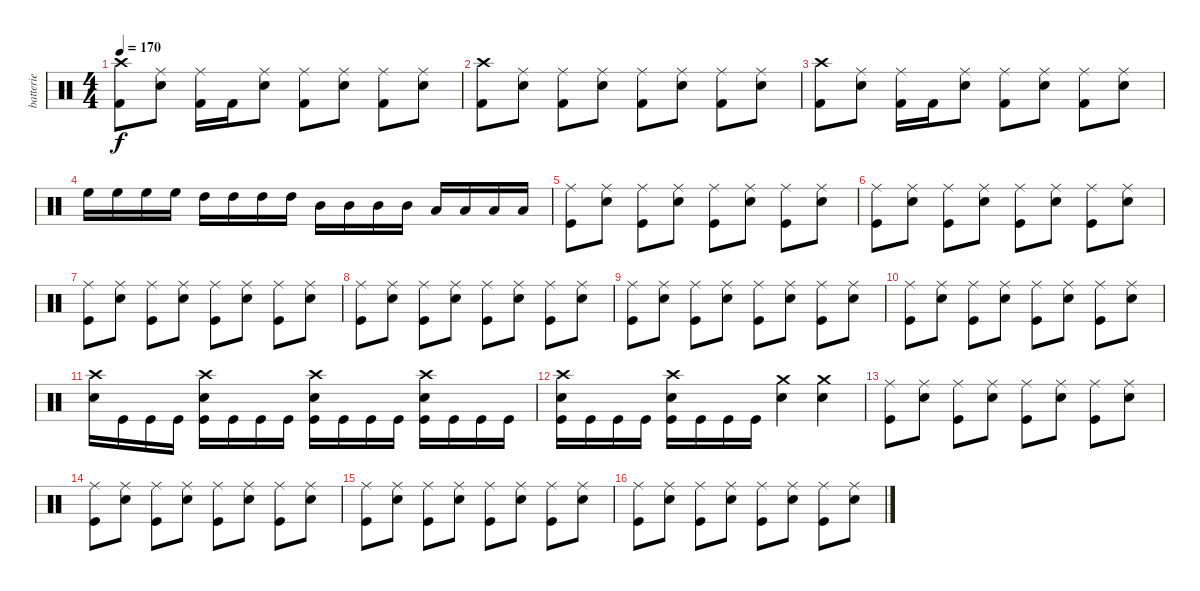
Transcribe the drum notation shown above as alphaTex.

\track ("batterie" "batterie") {instrument percussion}
\staff {score}
\articulation defaults
\ts (4 4)
\tempo 170
\clef neutral
\ks c
("Crash high (hit)" "Kick (hit) 2").8{dy f} ("Ride (middle)" "Snare (hit) 2").8 ("Ride (middle)" "Kick (hit) 2").16 "Kick (hit) 2".16 ("Ride (middle)" "Snare (hit) 2").8 ("Ride (middle)" "Kick (hit) 2").8 ("Ride (middle)" "Snare (hit) 2").8 ("Ride (middle)" "Kick (hit) 2").8 ("Ride (middle)" "Snare (hit) 2").8 |
("Crash high (hit)" "Kick (hit) 2").8 ("Ride (middle)" "Snare (hit) 2").8 ("Ride (middle)" "Kick (hit) 2").8 ("Ride (middle)" "Snare (hit) 2").8 ("Ride (middle)" "Kick (hit) 2").8 ("Ride (middle)" "Snare (hit) 2").8 ("Ride (middle)" "Kick (hit) 2").8 ("Ride (middle)" "Snare (hit) 2").8 |
("Crash high (hit)" "Kick (hit) 2").8 ("Ride (middle)" "Snare (hit) 2").8 ("Ride (middle)" "Kick (hit) 2").16 "Kick (hit) 2".16 ("Ride (middle)" "Snare (hit) 2").8 ("Ride (middle)" "Kick (hit) 2").8 ("Ride (middle)" "Snare (hit) 2").8 ("Ride (middle)" "Kick (hit) 2").8 ("Ride (middle)" "Snare (hit) 2").8 |
"High Floor Tom (hit)".16 "High Floor Tom (hit)".16 "High Floor Tom (hit)".16 "High Floor Tom (hit)".16 "High Tom (hit)".16 "High Tom (hit)".16 "High Tom (hit)".16 "High Tom (hit)".16 "Mid Tom (hit)".16 "Mid Tom (hit)".16 "Mid Tom (hit)".16 "Mid Tom (hit)".16 "Low Tom (hit)".16 "Low Tom (hit)".16 "Low Tom (hit)".16 "Low Tom (hit)".16 |
("Ride (middle)" "Kick (hit)").8 ("Ride (middle)" "Snare (hit) 2").8 ("Ride (middle)" "Kick (hit)").8 ("Ride (middle)" "Snare (hit) 2").8 ("Ride (middle)" "Kick (hit)").8 ("Ride (middle)" "Snare (hit) 2").8 ("Ride (middle)" "Kick (hit)").8 ("Ride (middle)" "Snare (hit) 2").8 |
("Ride (middle)" "Kick (hit)").8 ("Ride (middle)" "Snare (hit) 2").8 ("Ride (middle)" "Kick (hit)").8 ("Ride (middle)" "Snare (hit) 2").8 ("Ride (middle)" "Kick (hit)").8 ("Ride (middle)" "Snare (hit) 2").8 ("Ride (middle)" "Kick (hit)").8 ("Ride (middle)" "Snare (hit) 2").8 |
("Ride (middle)" "Kick (hit)").8 ("Ride (middle)" "Snare (hit) 2").8 ("Ride (middle)" "Kick (hit)").8 ("Ride (middle)" "Snare (hit) 2").8 ("Ride (middle)" "Kick (hit)").8 ("Ride (middle)" "Snare (hit) 2").8 ("Ride (middle)" "Kick (hit)").8 ("Ride (middle)" "Snare (hit) 2").8 |
("Ride (middle)" "Kick (hit)").8 ("Ride (middle)" "Snare (hit) 2").8 ("Ride (middle)" "Kick (hit)").8 ("Ride (middle)" "Snare (hit) 2").8 ("Ride (middle)" "Kick (hit)").8 ("Ride (middle)" "Snare (hit) 2").8 ("Ride (middle)" "Kick (hit)").8 ("Ride (middle)" "Snare (hit) 2").8 |
("Ride (middle)" "Kick (hit)").8 ("Ride (middle)" "Snare (hit) 2").8 ("Ride (middle)" "Kick (hit)").8 ("Ride (middle)" "Snare (hit) 2").8 ("Ride (middle)" "Kick (hit)").8 ("Ride (middle)" "Snare (hit) 2").8 ("Ride (middle)" "Kick (hit)").8 ("Ride (middle)" "Snare (hit) 2").8 |
("Ride (middle)" "Kick (hit)").8 ("Ride (middle)" "Snare (hit) 2").8 ("Ride (middle)" "Kick (hit)").8 ("Ride (middle)" "Snare (hit) 2").8 ("Ride (middle)" "Kick (hit)").8 ("Ride (middle)" "Snare (hit) 2").8 ("Ride (middle)" "Kick (hit)").8 ("Ride (middle)" "Snare (hit) 2").8 |
("Crash high (hit)" "Snare (hit) 2").16 "Kick (hit)".16 "Kick (hit)".16 "Kick (hit)".16 ("Crash high (hit)" "Snare (hit) 2" "Kick (hit)").16 "Kick (hit)".16 "Kick (hit)".16 "Kick (hit)".16 ("Crash high (hit)" "Snare (hit) 2" "Kick (hit)").16 "Kick (hit)".16 "Kick (hit)".16 "Kick (hit)".16 ("Crash high (hit)" "Snare (hit) 2" "Kick (hit)").16 "Kick (hit)".16 "Kick (hit)".16 "Kick (hit)".16 |
("Crash high (hit)" "Snare (hit) 2" "Kick (hit)").16 "Kick (hit)".16 "Kick (hit)".16 "Kick (hit)".16 ("Crash high (hit)" "Snare (hit) 2" "Kick (hit)").16 "Kick (hit)".16 "Kick (hit)".16 "Kick (hit)".16 ("Crash medium (hit)" "Snare (hit) 2").4 ("Crash medium (hit)" "Snare (hit) 2").4 |
("Ride (middle)" "Kick (hit)").8 ("Ride (middle)" "Snare (hit) 2").8 ("Ride (middle)" "Kick (hit)").8 ("Ride (middle)" "Snare (hit) 2").8 ("Ride (middle)" "Kick (hit)").8 ("Ride (middle)" "Snare (hit) 2").8 ("Ride (middle)" "Kick (hit)").8 ("Ride (middle)" "Snare (hit) 2").8 |
("Ride (middle)" "Kick (hit)").8 ("Ride (middle)" "Snare (hit) 2").8 ("Ride (middle)" "Kick (hit)").8 ("Ride (middle)" "Snare (hit) 2").8 ("Ride (middle)" "Kick (hit)").8 ("Ride (middle)" "Snare (hit) 2").8 ("Ride (middle)" "Kick (hit)").8 ("Ride (middle)" "Snare (hit) 2").8 |
("Ride (middle)" "Kick (hit)").8 ("Ride (middle)" "Snare (hit) 2").8 ("Ride (middle)" "Kick (hit)").8 ("Ride (middle)" "Snare (hit) 2").8 ("Ride (middle)" "Kick (hit)").8 ("Ride (middle)" "Snare (hit) 2").8 ("Ride (middle)" "Kick (hit)").8 ("Ride (middle)" "Snare (hit) 2").8 |
("Ride (middle)" "Kick (hit)").8 ("Ride (middle)" "Snare (hit) 2").8 ("Ride (middle)" "Kick (hit)").8 ("Ride (middle)" "Snare (hit) 2").8 ("Ride (middle)" "Kick (hit)").8 ("Ride (middle)" "Snare (hit) 2").8 ("Ride (middle)" "Kick (hit)").8 ("Ride (middle)" "Snare (hit) 2").8
